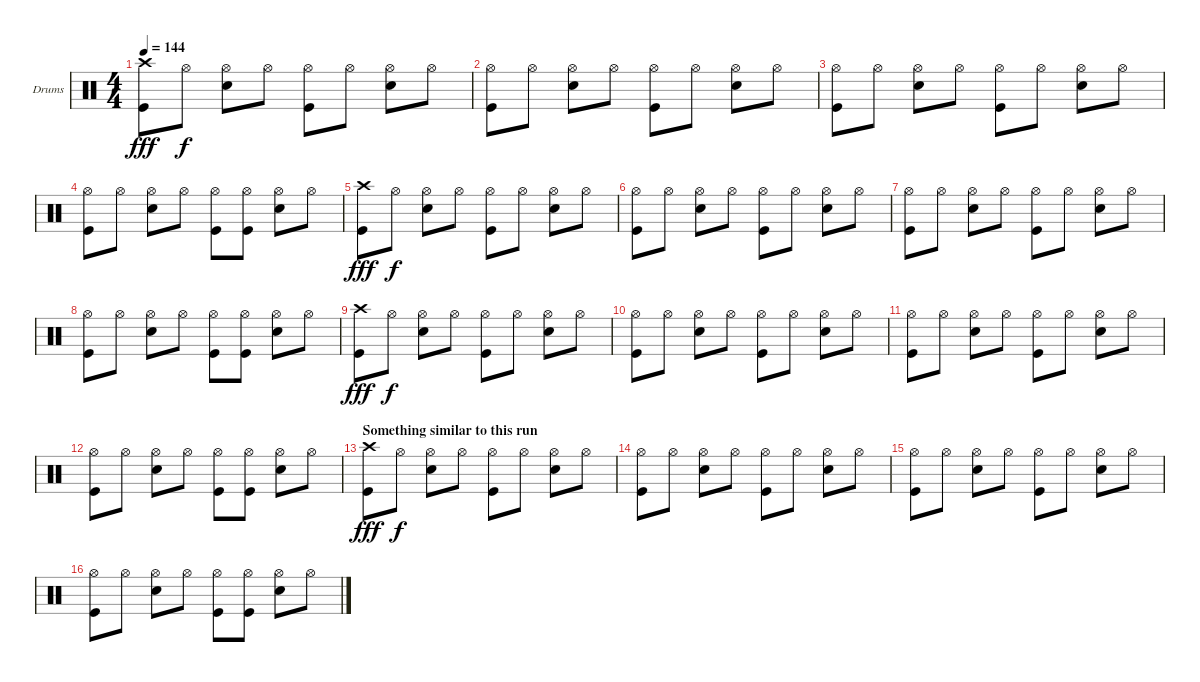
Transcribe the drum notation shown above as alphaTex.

\bracketExtendMode groupsimilarinstruments
\firstSystemTrackNameOrientation horizontal
\otherSystemsTrackNameOrientation horizontal
\track ("Drums" "Drums") {instrument percussion}
\staff {score}
\articulation defaults
\ts (4 4)
\tempo 144
\clef neutral
\ks c
("Crash high (hit)" "Kick (hit)").8{dy fff} "Hi-Hat (open)".8{dy f} ("Hi-Hat (open)" "Snare (hit) 2").8 "Hi-Hat (open)".8 ("Hi-Hat (open)" "Kick (hit)").8 "Hi-Hat (open)".8 ("Hi-Hat (open)" "Snare (hit) 2").8 "Hi-Hat (open)".8 |
("Hi-Hat (open)" "Kick (hit)").8 "Hi-Hat (open)".8 ("Hi-Hat (open)" "Snare (hit) 2").8 "Hi-Hat (open)".8 ("Hi-Hat (open)" "Kick (hit)").8 "Hi-Hat (open)".8 ("Hi-Hat (open)" "Snare (hit) 2").8 "Hi-Hat (open)".8 |
("Hi-Hat (open)" "Kick (hit)").8 "Hi-Hat (open)".8 ("Hi-Hat (open)" "Snare (hit) 2").8 "Hi-Hat (open)".8 ("Hi-Hat (open)" "Kick (hit)").8 "Hi-Hat (open)".8 ("Hi-Hat (open)" "Snare (hit) 2").8 "Hi-Hat (open)".8 |
("Hi-Hat (open)" "Kick (hit)").8 "Hi-Hat (open)".8 ("Hi-Hat (open)" "Snare (hit) 2").8 "Hi-Hat (open)".8 ("Hi-Hat (open)" "Kick (hit)").8 ("Hi-Hat (open)" "Kick (hit)").8 ("Hi-Hat (open)" "Snare (hit) 2").8 "Hi-Hat (open)".8 |
("Crash high (hit)" "Kick (hit)").8{dy fff} "Hi-Hat (open)".8{dy f} ("Hi-Hat (open)" "Snare (hit) 2").8 "Hi-Hat (open)".8 ("Hi-Hat (open)" "Kick (hit)").8 "Hi-Hat (open)".8 ("Hi-Hat (open)" "Snare (hit) 2").8 "Hi-Hat (open)".8 |
("Hi-Hat (open)" "Kick (hit)").8 "Hi-Hat (open)".8 ("Hi-Hat (open)" "Snare (hit) 2").8 "Hi-Hat (open)".8 ("Hi-Hat (open)" "Kick (hit)").8 "Hi-Hat (open)".8 ("Hi-Hat (open)" "Snare (hit) 2").8 "Hi-Hat (open)".8 |
("Hi-Hat (open)" "Kick (hit)").8 "Hi-Hat (open)".8 ("Hi-Hat (open)" "Snare (hit) 2").8 "Hi-Hat (open)".8 ("Hi-Hat (open)" "Kick (hit)").8 "Hi-Hat (open)".8 ("Hi-Hat (open)" "Snare (hit) 2").8 "Hi-Hat (open)".8 |
("Hi-Hat (open)" "Kick (hit)").8 "Hi-Hat (open)".8 ("Hi-Hat (open)" "Snare (hit) 2").8 "Hi-Hat (open)".8 ("Hi-Hat (open)" "Kick (hit)").8 ("Hi-Hat (open)" "Kick (hit)").8 ("Hi-Hat (open)" "Snare (hit) 2").8 "Hi-Hat (open)".8 |
("Crash high (hit)" "Kick (hit)").8{dy fff} "Hi-Hat (open)".8{dy f} ("Hi-Hat (open)" "Snare (hit) 2").8 "Hi-Hat (open)".8 ("Hi-Hat (open)" "Kick (hit)").8 "Hi-Hat (open)".8 ("Hi-Hat (open)" "Snare (hit) 2").8 "Hi-Hat (open)".8 |
("Hi-Hat (open)" "Kick (hit)").8 "Hi-Hat (open)".8 ("Hi-Hat (open)" "Snare (hit) 2").8 "Hi-Hat (open)".8 ("Hi-Hat (open)" "Kick (hit)").8 "Hi-Hat (open)".8 ("Hi-Hat (open)" "Snare (hit) 2").8 "Hi-Hat (open)".8 |
("Hi-Hat (open)" "Kick (hit)").8 "Hi-Hat (open)".8 ("Hi-Hat (open)" "Snare (hit) 2").8 "Hi-Hat (open)".8 ("Hi-Hat (open)" "Kick (hit)").8 "Hi-Hat (open)".8 ("Hi-Hat (open)" "Snare (hit) 2").8 "Hi-Hat (open)".8 |
("Hi-Hat (open)" "Kick (hit)").8 "Hi-Hat (open)".8 ("Hi-Hat (open)" "Snare (hit) 2").8 "Hi-Hat (open)".8 ("Hi-Hat (open)" "Kick (hit)").8 ("Hi-Hat (open)" "Kick (hit)").8 ("Hi-Hat (open)" "Snare (hit) 2").8 "Hi-Hat (open)".8 |
\section ("" "Something similar to this run")
("Crash high (hit)" "Kick (hit)").8{dy fff} "Hi-Hat (open)".8{dy f} ("Hi-Hat (open)" "Snare (hit) 2").8 "Hi-Hat (open)".8 ("Hi-Hat (open)" "Kick (hit)").8 "Hi-Hat (open)".8 ("Hi-Hat (open)" "Snare (hit) 2").8 "Hi-Hat (open)".8 |
("Hi-Hat (open)" "Kick (hit)").8 "Hi-Hat (open)".8 ("Hi-Hat (open)" "Snare (hit) 2").8 "Hi-Hat (open)".8 ("Hi-Hat (open)" "Kick (hit)").8 "Hi-Hat (open)".8 ("Hi-Hat (open)" "Snare (hit) 2").8 "Hi-Hat (open)".8 |
("Hi-Hat (open)" "Kick (hit)").8 "Hi-Hat (open)".8 ("Hi-Hat (open)" "Snare (hit) 2").8 "Hi-Hat (open)".8 ("Hi-Hat (open)" "Kick (hit)").8 "Hi-Hat (open)".8 ("Hi-Hat (open)" "Snare (hit) 2").8 "Hi-Hat (open)".8 |
("Hi-Hat (open)" "Kick (hit)").8 "Hi-Hat (open)".8 ("Hi-Hat (open)" "Snare (hit) 2").8 "Hi-Hat (open)".8 ("Hi-Hat (open)" "Kick (hit)").8 ("Hi-Hat (open)" "Kick (hit)").8 ("Hi-Hat (open)" "Snare (hit) 2").8 "Hi-Hat (open)".8
